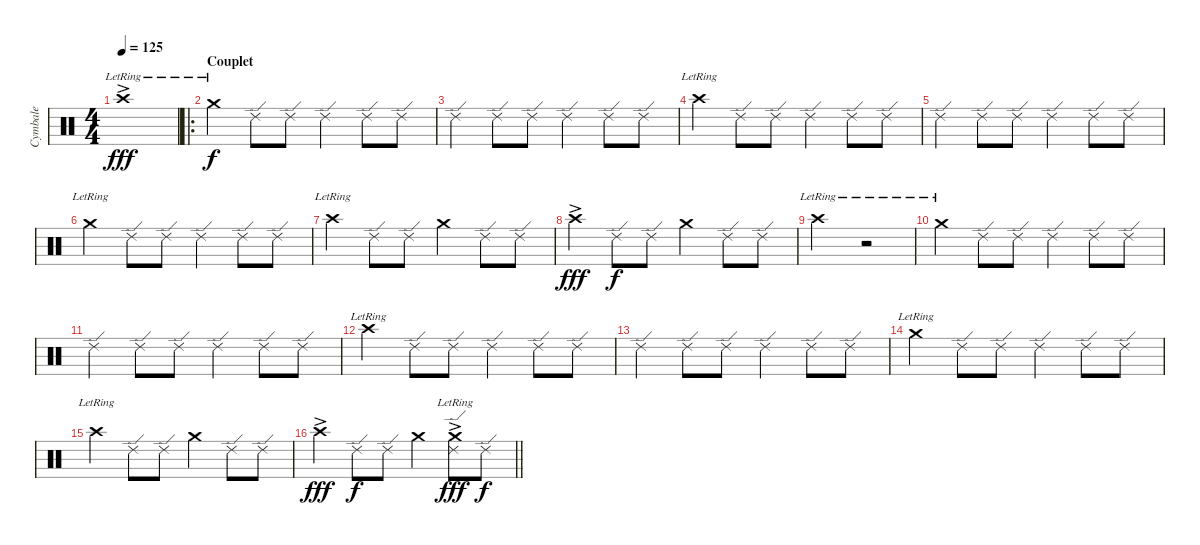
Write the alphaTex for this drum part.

\track ("Cymbale" "Cymbale") {instrument percussion}
\staff {score}
\articulation defaults
\ts (4 4)
\tempo 125
\clef neutral
\ks c "Crash high (hit)"{ac lr}.1{dy fff}
|
\ro
\section ("" "Couplet")
"Crash medium (hit)"{lr}.4{dy f} "Ride (edge) 2".8 "Ride (edge) 2".8 "Ride (edge) 2".4 "Ride (edge) 2".8 "Ride (edge) 2".8 |
"Ride (edge) 2".4 "Ride (edge) 2".8 "Ride (edge) 2".8 "Ride (edge) 2".4 "Ride (edge) 2".8 "Ride (edge) 2".8 |
"Crash high (hit)"{lr}.4 "Ride (edge) 2".8 "Ride (edge) 2".8 "Ride (edge) 2".4 "Ride (edge) 2".8 "Ride (edge) 2".8 |
"Ride (edge) 2".4 "Ride (edge) 2".8 "Ride (edge) 2".8 "Ride (edge) 2".4 "Ride (edge) 2".8 "Ride (edge) 2".8 |
"Crash medium (hit)"{lr}.4 "Ride (edge) 2".8 "Ride (edge) 2".8 "Ride (edge) 2".4 "Ride (edge) 2".8 "Ride (edge) 2".8 |
"Crash high (hit)"{lr}.4 "Ride (edge) 2".8 "Ride (edge) 2".8 "Crash medium (hit)".4 "Ride (edge) 2".8 "Ride (edge) 2".8 |
"Crash high (hit)"{ac}.4{dy fff} "Ride (edge) 2".8{dy f} "Ride (edge) 2".8 "Crash medium (hit)".4 "Ride (edge) 2".8 "Ride (edge) 2".8 |
"Crash high (hit)"{lr}.2 r.2 |
"Crash medium (hit)"{lr}.4 "Ride (edge) 2".8 "Ride (edge) 2".8 "Ride (edge) 2".4 "Ride (edge) 2".8 "Ride (edge) 2".8 |
"Ride (edge) 2".4 "Ride (edge) 2".8 "Ride (edge) 2".8 "Ride (edge) 2".4 "Ride (edge) 2".8 "Ride (edge) 2".8 |
"Crash high (hit)"{lr}.4 "Ride (edge) 2".8 "Ride (edge) 2".8 "Ride (edge) 2".4 "Ride (edge) 2".8 "Ride (edge) 2".8 |
"Ride (edge) 2".4 "Ride (edge) 2".8 "Ride (edge) 2".8 "Ride (edge) 2".4 "Ride (edge) 2".8 "Ride (edge) 2".8 |
"Crash medium (hit)"{lr}.4 "Ride (edge) 2".8 "Ride (edge) 2".8 "Ride (edge) 2".4 "Ride (edge) 2".8 "Ride (edge) 2".8 |
"Crash high (hit)"{lr}.4 "Ride (edge) 2".8 "Ride (edge) 2".8 "Crash medium (hit)".4 "Ride (edge) 2".8 "Ride (edge) 2".8 |
\barLineRight lightlight "Crash high (hit)"{ac}.4{dy fff} "Ride (edge) 2".8{dy f} "Ride (edge) 2".8 "Crash medium (hit)".4
("Crash medium (hit)"{ac lr} "Ride (edge) 2").8{dy fff} "Ride (edge) 2".8{dy f}
